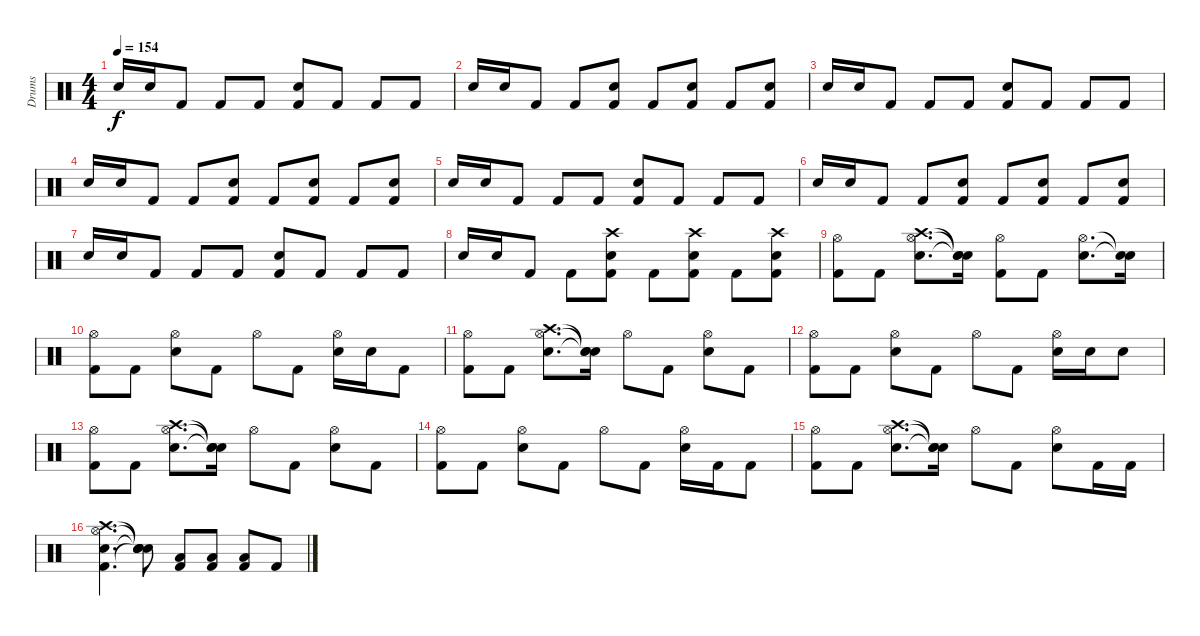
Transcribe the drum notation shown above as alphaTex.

\track ("Drums" "Drums") {instrument percussion}
\staff {score}
\articulation defaults
\ts (4 4)
\tempo 154
\clef neutral
\ks c "Snare (hit) 2".16{dy f} "Snare (hit) 2".16 "Kick (hit) 2".8 "Kick (hit) 2".8 "Kick (hit) 2".8
("Kick (hit) 2" "Snare (hit) 2").8 "Kick (hit) 2".8 "Kick (hit) 2".8 "Kick (hit) 2".8 |
"Snare (hit) 2".16 "Snare (hit) 2".16 "Kick (hit) 2".8 "Kick (hit) 2".8 ("Kick (hit) 2" "Snare (hit) 2").8 "Kick (hit) 2".8 ("Kick (hit) 2" "Snare (hit) 2").8 "Kick (hit) 2".8 ("Kick (hit) 2" "Snare (hit) 2").8 |
"Snare (hit) 2".16 "Snare (hit) 2".16 "Kick (hit) 2".8 "Kick (hit) 2".8 "Kick (hit) 2".8 ("Kick (hit) 2" "Snare (hit) 2").8 "Kick (hit) 2".8 "Kick (hit) 2".8 "Kick (hit) 2".8 |
"Snare (hit) 2".16 "Snare (hit) 2".16 "Kick (hit) 2".8 "Kick (hit) 2".8 ("Kick (hit) 2" "Snare (hit) 2").8 "Kick (hit) 2".8 ("Kick (hit) 2" "Snare (hit) 2").8 "Kick (hit) 2".8 ("Kick (hit) 2" "Snare (hit) 2").8 |
"Snare (hit) 2".16 "Snare (hit) 2".16 "Kick (hit) 2".8 "Kick (hit) 2".8 "Kick (hit) 2".8 ("Kick (hit) 2" "Snare (hit) 2").8 "Kick (hit) 2".8 "Kick (hit) 2".8 "Kick (hit) 2".8 |
"Snare (hit) 2".16 "Snare (hit) 2".16 "Kick (hit) 2".8 "Kick (hit) 2".8 ("Kick (hit) 2" "Snare (hit) 2").8 "Kick (hit) 2".8 ("Kick (hit) 2" "Snare (hit) 2").8 "Kick (hit) 2".8 ("Kick (hit) 2" "Snare (hit) 2").8 |
"Snare (hit) 2".16 "Snare (hit) 2".16 "Kick (hit) 2".8 "Kick (hit) 2".8 "Kick (hit) 2".8 ("Kick (hit) 2" "Snare (hit) 2").8 "Kick (hit) 2".8 "Kick (hit) 2".8 "Kick (hit) 2".8 |
"Snare (hit) 2".16 "Snare (hit) 2".16 "Kick (hit) 2".8 "Kick (hit) 2".8 ("Kick (hit) 2" "Snare (hit) 2" "Crash high (hit)").8 "Kick (hit) 2".8 ("Kick (hit) 2" "Snare (hit) 2" "Crash high (hit)").8 "Kick (hit) 2".8 ("Kick (hit) 2" "Snare (hit) 2" "Crash high (hit)").8 |
("Kick (hit) 2" "Hi-Hat (open)").8 "Kick (hit) 2".8 ("Snare (hit) 2" "Hi-Hat (open)" "Crash high (hit)").8{d} ("Snare (hit)"{t} "Snare (hit)"{t} "Snare (hit)"{t}).16 ("Kick (hit) 2" "Hi-Hat (open)").8 "Kick (hit) 2".8 ("Snare (hit) 2" "Hi-Hat (open)").8{d} ("Snare (hit)"{t} "Snare (hit)"{t}).16 |
("Kick (hit) 2" "Hi-Hat (open)").8 "Kick (hit) 2".8 ("Snare (hit) 2" "Hi-Hat (open)").8 "Kick (hit) 2".8 "Hi-Hat (open)".8 "Kick (hit) 2".8 ("Snare (hit) 2" "Hi-Hat (open)").16 "Snare (hit) 2".16 "Kick (hit) 2".8 |
("Kick (hit) 2" "Hi-Hat (open)").8 "Kick (hit) 2".8 ("Snare (hit) 2" "Hi-Hat (open)" "Crash high (hit)").8{d} ("Snare (hit)"{t} "Snare (hit)"{t} "Snare (hit)"{t}).16 "Hi-Hat (open)".8 "Kick (hit) 2".8 ("Snare (hit) 2" "Hi-Hat (open)").8 "Kick (hit) 2".8 |
("Kick (hit) 2" "Hi-Hat (open)").8 "Kick (hit) 2".8 ("Snare (hit) 2" "Hi-Hat (open)").8 "Kick (hit) 2".8 "Hi-Hat (open)".8 "Kick (hit) 2".8 ("Snare (hit) 2" "Hi-Hat (open)").16 "Snare (hit) 2".16 "Snare (hit) 2".8 |
("Kick (hit) 2" "Hi-Hat (open)").8 "Kick (hit) 2".8 ("Snare (hit) 2" "Hi-Hat (open)" "Crash high (hit)").8{d} ("Snare (hit)"{t} "Snare (hit)"{t} "Snare (hit)"{t}).16 "Hi-Hat (open)".8 "Kick (hit) 2".8 ("Snare (hit) 2" "Hi-Hat (open)").8 "Kick (hit) 2".8 |
("Kick (hit) 2" "Hi-Hat (open)").8 "Kick (hit) 2".8 ("Snare (hit) 2" "Hi-Hat (open)").8 "Kick (hit) 2".8 "Hi-Hat (open)".8 "Kick (hit) 2".8 ("Snare (hit) 2" "Hi-Hat (open)").16 "Kick (hit) 2".16 "Kick (hit) 2".8 |
("Kick (hit) 2" "Hi-Hat (open)").8 "Kick (hit) 2".8 ("Snare (hit) 2" "Hi-Hat (open)" "Crash high (hit)").8{d} ("Snare (hit)"{t} "Snare (hit)"{t} "Snare (hit)"{t}).16 "Hi-Hat (open)".8 "Kick (hit) 2".8 ("Snare (hit) 2" "Hi-Hat (open)").8 "Kick (hit) 2".16 "Kick (hit) 2".16 |
("Kick (hit) 2" "Snare (hit) 2" "Hi-Hat (open)" "Crash high (hit)").4{d} ("Snare (hit)"{t} "Snare (hit)"{t} "Snare (hit)"{t} "Snare (hit)"{t}).8 ("Kick (hit) 2" "Low Floor Tom (hit)").8 ("Kick (hit) 2" "Low Floor Tom (hit)").8 ("Kick (hit) 2" "Low Floor Tom (hit)").8 "Kick (hit) 2".8
